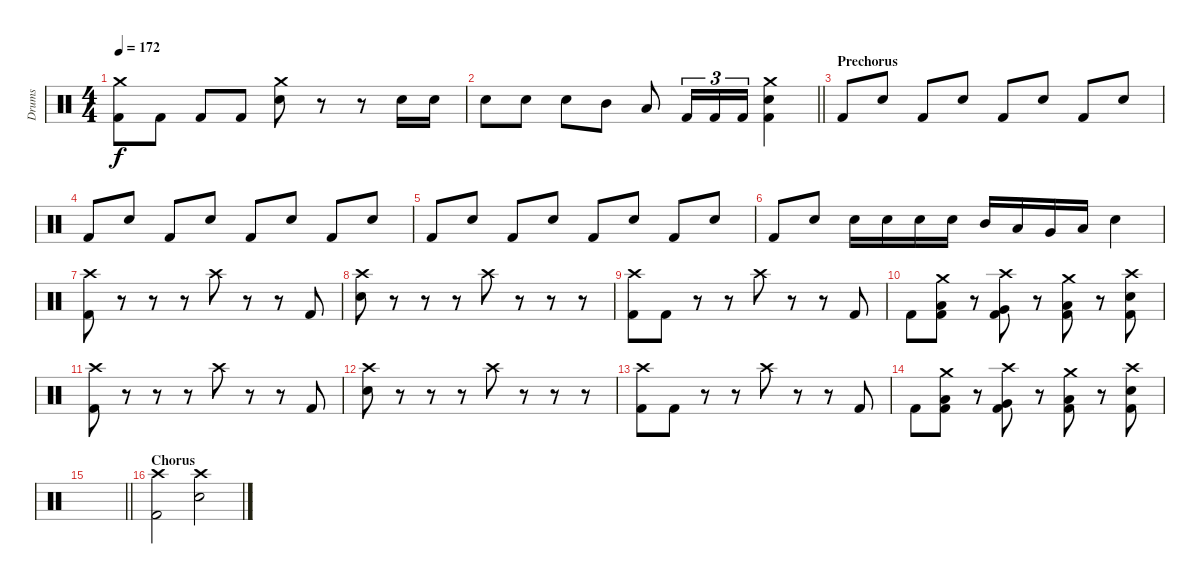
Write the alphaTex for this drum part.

\track ("Drums" "Drums") {instrument percussion}
\staff {score}
\articulation defaults
\ts (4 4)
\tempo 172
\clef neutral
\ks c
("Crash medium (hit)" "Kick (hit) 2").8{dy f} "Kick (hit) 2".8 "Kick (hit) 2".8 "Kick (hit) 2".8 ("Crash medium (hit)" "Electric Snare (hit)").8 r.8 r.8 "Electric Snare (hit)".16 "Electric Snare (hit)".16 |
\barLineRight lightlight "Electric Snare (hit)".8 "Electric Snare (hit)".8 "Electric Snare (hit)".8 "Mid Tom (hit)".8 "Low Tom (hit)".8 "Kick (hit) 2".16{tu (3 2)} "Kick (hit) 2".16{tu (3 2)} "Kick (hit) 2".16{tu (3 2)}
("Crash medium (hit)" "Electric Snare (hit)" "Kick (hit) 2").4 |
\section ("" "Prechorus")
"Kick (hit) 2".8 "Electric Snare (hit)".8 "Kick (hit) 2".8 "Electric Snare (hit)".8 "Kick (hit) 2".8 "Electric Snare (hit)".8 "Kick (hit) 2".8 "Electric Snare (hit)".8 |
"Kick (hit) 2".8 "Electric Snare (hit)".8 "Kick (hit) 2".8 "Electric Snare (hit)".8 "Kick (hit) 2".8 "Electric Snare (hit)".8 "Kick (hit) 2".8 "Electric Snare (hit)".8 |
"Kick (hit) 2".8 "Electric Snare (hit)".8 "Kick (hit) 2".8 "Electric Snare (hit)".8 "Kick (hit) 2".8 "Electric Snare (hit)".8 "Kick (hit) 2".8 "Electric Snare (hit)".8 |
"Kick (hit) 2".8 "Electric Snare (hit)".8 "Electric Snare (hit)".16 "Electric Snare (hit)".16 "Electric Snare (hit)".16 "Electric Snare (hit)".16 "Mid Tom (hit)".16 "Low Tom (hit)".16 "Very Low Tom (hit)".16 "Low Floor Tom (hit)".16 "Electric Snare (hit)".4 |
("Crash high (hit)" "Kick (hit) 2").8 r.8 r.8 r.8 "Crash high (hit)".8 r.8 r.8 "Kick (hit) 2".8 |
("Crash high (hit)" "Electric Snare (hit)").8 r.8 r.8 r.8 "Crash high (hit)".8 r.8 r.8 r.8 |
("Crash high (hit)" "Kick (hit) 2").8 "Kick (hit) 2".8 r.8 r.8 "Crash high (hit)".8 r.8 r.8 "Kick (hit) 2".8 |
"Kick (hit) 2".8 ("Crash medium (hit)" "Low Tom (hit)" "Kick (hit) 2").8 r.8 ("Crash high (hit)" "Very Low Tom (hit)" "Kick (hit) 2").8 r.8 ("Crash medium (hit)" "Low Floor Tom (hit)" "Kick (hit) 2").8 r.8 ("Crash high (hit)" "Electric Snare (hit)" "Kick (hit) 2").8 |
("Crash high (hit)" "Kick (hit) 2").8 r.8 r.8 r.8 "Crash high (hit)".8 r.8 r.8 "Kick (hit) 2".8 |
("Crash high (hit)" "Electric Snare (hit)").8 r.8 r.8 r.8 "Crash high (hit)".8 r.8 r.8 r.8 |
("Crash high (hit)" "Kick (hit) 2").8 "Kick (hit) 2".8 r.8 r.8 "Crash high (hit)".8 r.8 r.8 "Kick (hit) 2".8 |
"Kick (hit) 2".8 ("Crash medium (hit)" "Low Tom (hit)" "Kick (hit) 2").8 r.8 ("Crash high (hit)" "Very Low Tom (hit)" "Kick (hit) 2").8 r.8 ("Crash medium (hit)" "Low Floor Tom (hit)" "Kick (hit) 2").8 r.8 ("Crash high (hit)" "Electric Snare (hit)" "Kick (hit) 2").8 |
\barLineRight lightlight
|
\section ("" "Chorus")
("Crash high (hit)" "Kick (hit) 2").2 ("Crash high (hit)" "Electric Snare (hit)").2
